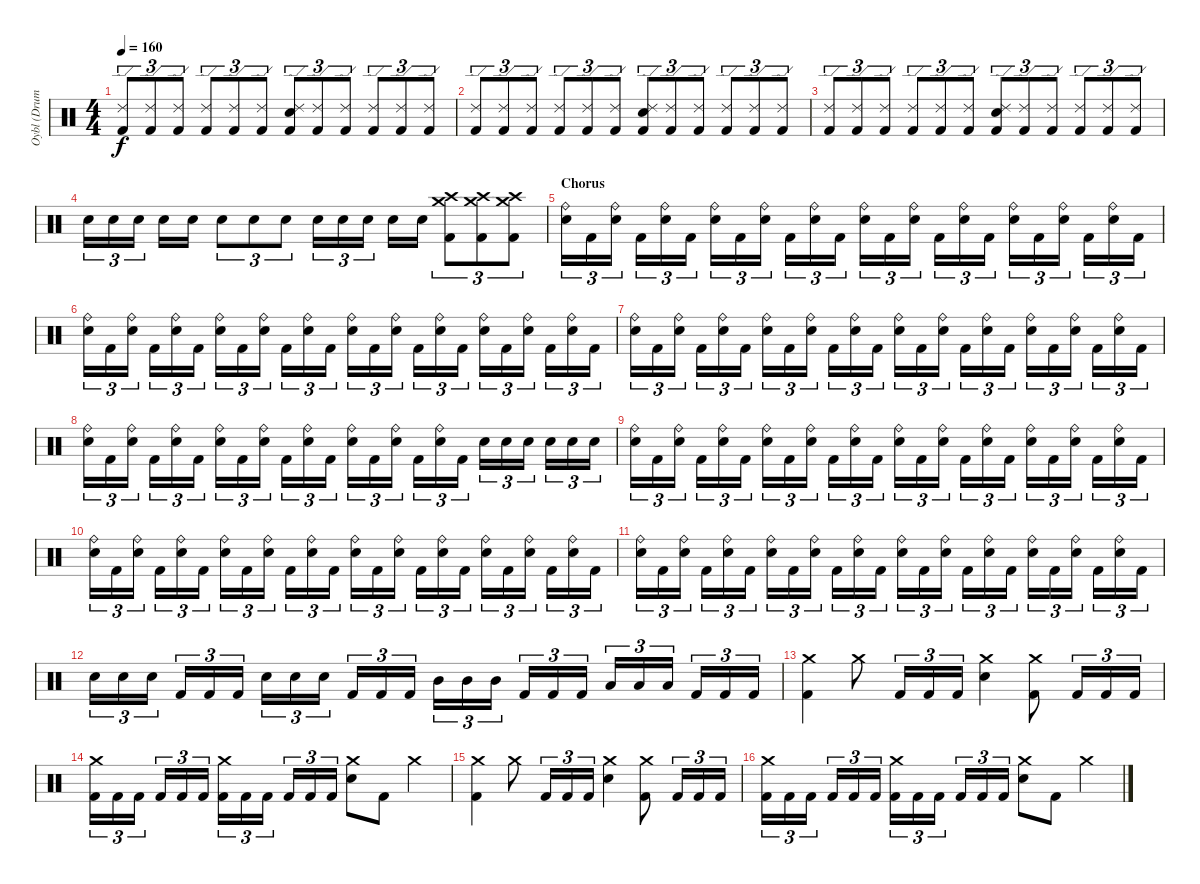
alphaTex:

\track ("Oybl (Drums)" "Oybl (Drum") {instrument percussion}
\staff {score}
\articulation defaults
\ts (4 4)
\tempo 160
\clef neutral
\ks c
("Ride (edge) 2" "Kick (hit) 2").8{tu (3 2) dy f} ("Ride (edge) 2" "Kick (hit) 2").8{tu (3 2)} ("Ride (edge) 2" "Kick (hit) 2").8{tu (3 2)} ("Ride (edge) 2" "Kick (hit) 2").8{tu (3 2)} ("Ride (edge) 2" "Kick (hit) 2").8{tu (3 2)} ("Ride (edge) 2" "Kick (hit) 2").8{tu (3 2)} ("Ride (edge) 2" "Snare (hit) 2" "Kick (hit) 2").8{tu (3 2)} ("Ride (edge) 2" "Kick (hit) 2").8{tu (3 2)} ("Ride (edge) 2" "Kick (hit) 2").8{tu (3 2)} ("Ride (edge) 2" "Kick (hit) 2").8{tu (3 2)} ("Ride (edge) 2" "Kick (hit) 2").8{tu (3 2)} ("Ride (edge) 2" "Kick (hit) 2").8{tu (3 2)} |
("Ride (edge) 2" "Kick (hit) 2").8{tu (3 2)} ("Ride (edge) 2" "Kick (hit) 2").8{tu (3 2)} ("Ride (edge) 2" "Kick (hit) 2").8{tu (3 2)} ("Ride (edge) 2" "Kick (hit) 2").8{tu (3 2)} ("Ride (edge) 2" "Kick (hit) 2").8{tu (3 2)} ("Ride (edge) 2" "Kick (hit) 2").8{tu (3 2)} ("Ride (edge) 2" "Snare (hit) 2" "Kick (hit) 2").8{tu (3 2)} ("Ride (edge) 2" "Kick (hit) 2").8{tu (3 2)} ("Ride (edge) 2" "Kick (hit) 2").8{tu (3 2)} ("Ride (edge) 2" "Kick (hit) 2").8{tu (3 2)} ("Ride (edge) 2" "Kick (hit) 2").8{tu (3 2)} ("Ride (edge) 2" "Kick (hit) 2").8{tu (3 2)} |
("Ride (edge) 2" "Kick (hit) 2").8{tu (3 2)} ("Ride (edge) 2" "Kick (hit) 2").8{tu (3 2)} ("Ride (edge) 2" "Kick (hit) 2").8{tu (3 2)} ("Ride (edge) 2" "Kick (hit) 2").8{tu (3 2)} ("Ride (edge) 2" "Kick (hit) 2").8{tu (3 2)} ("Ride (edge) 2" "Kick (hit) 2").8{tu (3 2)} ("Ride (edge) 2" "Snare (hit) 2" "Kick (hit) 2").8{tu (3 2)} ("Ride (edge) 2" "Kick (hit) 2").8{tu (3 2)} ("Ride (edge) 2" "Kick (hit) 2").8{tu (3 2)} ("Ride (edge) 2" "Kick (hit) 2").8{tu (3 2)} ("Ride (edge) 2" "Kick (hit) 2").8{tu (3 2)} ("Ride (edge) 2" "Kick (hit) 2").8{tu (3 2)} |
"Snare (hit) 2".16{tu (3 2)} "Snare (hit) 2".16{tu (3 2)} "Snare (hit) 2".16{tu (3 2)} "Snare (hit) 2".16 "Snare (hit) 2".16 "Snare (hit) 2".8{tu (3 2)} "Snare (hit) 2".8{tu (3 2)} "Snare (hit) 2".8{tu (3 2)} "Snare (hit) 2".16{tu (3 2)} "Snare (hit) 2".16{tu (3 2)} "Snare (hit) 2".16{tu (3 2)} "Snare (hit) 2".16 "Snare (hit) 2".16 ("Crash medium (hit)" "Crash high (hit)" "Kick (hit) 2").8{tu (3 2)} ("Crash medium (hit)" "Crash high (hit)" "Kick (hit) 2").8{tu (3 2)} ("Crash medium (hit)" "Crash high (hit)" "Kick (hit) 2").8{tu (3 2)} |
\section ("" "Chorus")
("Ride (bell)" "Snare (hit) 2").16{tu (3 2)} "Kick (hit) 2".16{tu (3 2)} ("Ride (bell)" "Snare (hit) 2").16{tu (3 2)} "Kick (hit) 2".16{tu (3 2)} ("Ride (bell)" "Snare (hit) 2").16{tu (3 2)} "Kick (hit) 2".16{tu (3 2)} ("Ride (bell)" "Snare (hit) 2").16{tu (3 2)} "Kick (hit) 2".16{tu (3 2)} ("Ride (bell)" "Snare (hit) 2").16{tu (3 2)} "Kick (hit) 2".16{tu (3 2)} ("Ride (bell)" "Snare (hit) 2").16{tu (3 2)} "Kick (hit) 2".16{tu (3 2)} ("Ride (bell)" "Snare (hit) 2").16{tu (3 2)} "Kick (hit) 2".16{tu (3 2)} ("Ride (bell)" "Snare (hit) 2").16{tu (3 2)} "Kick (hit) 2".16{tu (3 2)} ("Ride (bell)" "Snare (hit) 2").16{tu (3 2)} "Kick (hit) 2".16{tu (3 2)} ("Ride (bell)" "Snare (hit) 2").16{tu (3 2)} "Kick (hit) 2".16{tu (3 2)} ("Ride (bell)" "Snare (hit) 2").16{tu (3 2)} "Kick (hit) 2".16{tu (3 2)} ("Ride (bell)" "Snare (hit) 2").16{tu (3 2)} "Kick (hit) 2".16{tu (3 2)} |
("Ride (bell)" "Snare (hit) 2").16{tu (3 2)} "Kick (hit) 2".16{tu (3 2)} ("Ride (bell)" "Snare (hit) 2").16{tu (3 2)} "Kick (hit) 2".16{tu (3 2)} ("Ride (bell)" "Snare (hit) 2").16{tu (3 2)} "Kick (hit) 2".16{tu (3 2)} ("Ride (bell)" "Snare (hit) 2").16{tu (3 2)} "Kick (hit) 2".16{tu (3 2)} ("Ride (bell)" "Snare (hit) 2").16{tu (3 2)} "Kick (hit) 2".16{tu (3 2)} ("Ride (bell)" "Snare (hit) 2").16{tu (3 2)} "Kick (hit) 2".16{tu (3 2)} ("Ride (bell)" "Snare (hit) 2").16{tu (3 2)} "Kick (hit) 2".16{tu (3 2)} ("Ride (bell)" "Snare (hit) 2").16{tu (3 2)} "Kick (hit) 2".16{tu (3 2)} ("Ride (bell)" "Snare (hit) 2").16{tu (3 2)} "Kick (hit) 2".16{tu (3 2)} ("Ride (bell)" "Snare (hit) 2").16{tu (3 2)} "Kick (hit) 2".16{tu (3 2)} ("Ride (bell)" "Snare (hit) 2").16{tu (3 2)} "Kick (hit) 2".16{tu (3 2)} ("Ride (bell)" "Snare (hit) 2").16{tu (3 2)} "Kick (hit) 2".16{tu (3 2)} |
("Ride (bell)" "Snare (hit) 2").16{tu (3 2)} "Kick (hit) 2".16{tu (3 2)} ("Ride (bell)" "Snare (hit) 2").16{tu (3 2)} "Kick (hit) 2".16{tu (3 2)} ("Ride (bell)" "Snare (hit) 2").16{tu (3 2)} "Kick (hit) 2".16{tu (3 2)} ("Ride (bell)" "Snare (hit) 2").16{tu (3 2)} "Kick (hit) 2".16{tu (3 2)} ("Ride (bell)" "Snare (hit) 2").16{tu (3 2)} "Kick (hit) 2".16{tu (3 2)} ("Ride (bell)" "Snare (hit) 2").16{tu (3 2)} "Kick (hit) 2".16{tu (3 2)} ("Ride (bell)" "Snare (hit) 2").16{tu (3 2)} "Kick (hit) 2".16{tu (3 2)} ("Ride (bell)" "Snare (hit) 2").16{tu (3 2)} "Kick (hit) 2".16{tu (3 2)} ("Ride (bell)" "Snare (hit) 2").16{tu (3 2)} "Kick (hit) 2".16{tu (3 2)} ("Ride (bell)" "Snare (hit) 2").16{tu (3 2)} "Kick (hit) 2".16{tu (3 2)} ("Ride (bell)" "Snare (hit) 2").16{tu (3 2)} "Kick (hit) 2".16{tu (3 2)} ("Ride (bell)" "Snare (hit) 2").16{tu (3 2)} "Kick (hit) 2".16{tu (3 2)} |
("Ride (bell)" "Snare (hit) 2").16{tu (3 2)} "Kick (hit) 2".16{tu (3 2)} ("Ride (bell)" "Snare (hit) 2").16{tu (3 2)} "Kick (hit) 2".16{tu (3 2)} ("Ride (bell)" "Snare (hit) 2").16{tu (3 2)} "Kick (hit) 2".16{tu (3 2)} ("Ride (bell)" "Snare (hit) 2").16{tu (3 2)} "Kick (hit) 2".16{tu (3 2)} ("Ride (bell)" "Snare (hit) 2").16{tu (3 2)} "Kick (hit) 2".16{tu (3 2)} ("Ride (bell)" "Snare (hit) 2").16{tu (3 2)} "Kick (hit) 2".16{tu (3 2)} ("Ride (bell)" "Snare (hit) 2").16{tu (3 2)} "Kick (hit) 2".16{tu (3 2)} ("Ride (bell)" "Snare (hit) 2").16{tu (3 2)} "Kick (hit) 2".16{tu (3 2)} ("Ride (bell)" "Snare (hit) 2").16{tu (3 2)} "Kick (hit) 2".16{tu (3 2)} "Snare (hit) 2".16{tu (3 2)} "Snare (hit) 2".16{tu (3 2)} "Snare (hit) 2".16{tu (3 2)} "Snare (hit) 2".16{tu (3 2)} "Snare (hit) 2".16{tu (3 2)} "Snare (hit) 2".16{tu (3 2)} |
("Ride (bell)" "Snare (hit) 2").16{tu (3 2)} "Kick (hit) 2".16{tu (3 2)} ("Ride (bell)" "Snare (hit) 2").16{tu (3 2)} "Kick (hit) 2".16{tu (3 2)} ("Ride (bell)" "Snare (hit) 2").16{tu (3 2)} "Kick (hit) 2".16{tu (3 2)} ("Ride (bell)" "Snare (hit) 2").16{tu (3 2)} "Kick (hit) 2".16{tu (3 2)} ("Ride (bell)" "Snare (hit) 2").16{tu (3 2)} "Kick (hit) 2".16{tu (3 2)} ("Ride (bell)" "Snare (hit) 2").16{tu (3 2)} "Kick (hit) 2".16{tu (3 2)} ("Ride (bell)" "Snare (hit) 2").16{tu (3 2)} "Kick (hit) 2".16{tu (3 2)} ("Ride (bell)" "Snare (hit) 2").16{tu (3 2)} "Kick (hit) 2".16{tu (3 2)} ("Ride (bell)" "Snare (hit) 2").16{tu (3 2)} "Kick (hit) 2".16{tu (3 2)} ("Ride (bell)" "Snare (hit) 2").16{tu (3 2)} "Kick (hit) 2".16{tu (3 2)} ("Ride (bell)" "Snare (hit) 2").16{tu (3 2)} "Kick (hit) 2".16{tu (3 2)} ("Ride (bell)" "Snare (hit) 2").16{tu (3 2)} "Kick (hit) 2".16{tu (3 2)} |
("Ride (bell)" "Snare (hit) 2").16{tu (3 2)} "Kick (hit) 2".16{tu (3 2)} ("Ride (bell)" "Snare (hit) 2").16{tu (3 2)} "Kick (hit) 2".16{tu (3 2)} ("Ride (bell)" "Snare (hit) 2").16{tu (3 2)} "Kick (hit) 2".16{tu (3 2)} ("Ride (bell)" "Snare (hit) 2").16{tu (3 2)} "Kick (hit) 2".16{tu (3 2)} ("Ride (bell)" "Snare (hit) 2").16{tu (3 2)} "Kick (hit) 2".16{tu (3 2)} ("Ride (bell)" "Snare (hit) 2").16{tu (3 2)} "Kick (hit) 2".16{tu (3 2)} ("Ride (bell)" "Snare (hit) 2").16{tu (3 2)} "Kick (hit) 2".16{tu (3 2)} ("Ride (bell)" "Snare (hit) 2").16{tu (3 2)} "Kick (hit) 2".16{tu (3 2)} ("Ride (bell)" "Snare (hit) 2").16{tu (3 2)} "Kick (hit) 2".16{tu (3 2)} ("Ride (bell)" "Snare (hit) 2").16{tu (3 2)} "Kick (hit) 2".16{tu (3 2)} ("Ride (bell)" "Snare (hit) 2").16{tu (3 2)} "Kick (hit) 2".16{tu (3 2)} ("Ride (bell)" "Snare (hit) 2").16{tu (3 2)} "Kick (hit) 2".16{tu (3 2)} |
("Ride (bell)" "Snare (hit) 2").16{tu (3 2)} "Kick (hit) 2".16{tu (3 2)} ("Ride (bell)" "Snare (hit) 2").16{tu (3 2)} "Kick (hit) 2".16{tu (3 2)} ("Ride (bell)" "Snare (hit) 2").16{tu (3 2)} "Kick (hit) 2".16{tu (3 2)} ("Ride (bell)" "Snare (hit) 2").16{tu (3 2)} "Kick (hit) 2".16{tu (3 2)} ("Ride (bell)" "Snare (hit) 2").16{tu (3 2)} "Kick (hit) 2".16{tu (3 2)} ("Ride (bell)" "Snare (hit) 2").16{tu (3 2)} "Kick (hit) 2".16{tu (3 2)} ("Ride (bell)" "Snare (hit) 2").16{tu (3 2)} "Kick (hit) 2".16{tu (3 2)} ("Ride (bell)" "Snare (hit) 2").16{tu (3 2)} "Kick (hit) 2".16{tu (3 2)} ("Ride (bell)" "Snare (hit) 2").16{tu (3 2)} "Kick (hit) 2".16{tu (3 2)} ("Ride (bell)" "Snare (hit) 2").16{tu (3 2)} "Kick (hit) 2".16{tu (3 2)} ("Ride (bell)" "Snare (hit) 2").16{tu (3 2)} "Kick (hit) 2".16{tu (3 2)} ("Ride (bell)" "Snare (hit) 2").16{tu (3 2)} "Kick (hit) 2".16{tu (3 2)} |
"Snare (hit) 2".16{tu (3 2)} "Snare (hit) 2".16{tu (3 2)} "Snare (hit) 2".16{tu (3 2)} "Kick (hit) 2".16{tu (3 2)} "Kick (hit) 2".16{tu (3 2)} "Kick (hit) 2".16{tu (3 2)} "Snare (hit) 2".16{tu (3 2)} "Snare (hit) 2".16{tu (3 2)} "Snare (hit) 2".16{tu (3 2)} "Kick (hit) 2".16{tu (3 2)} "Kick (hit) 2".16{tu (3 2)} "Kick (hit) 2".16{tu (3 2)} "Mid Tom (hit)".16{tu (3 2)} "Mid Tom (hit)".16{tu (3 2)} "Mid Tom (hit)".16{tu (3 2)} "Kick (hit) 2".16{tu (3 2)} "Kick (hit) 2".16{tu (3 2)} "Kick (hit) 2".16{tu (3 2)} "Low Tom (hit)".16{tu (3 2)} "Low Tom (hit)".16{tu (3 2)} "Low Tom (hit)".16{tu (3 2)} "Kick (hit) 2".16{tu (3 2)} "Kick (hit) 2".16{tu (3 2)} "Kick (hit) 2".16{tu (3 2)} |
("Crash medium (hit)" "Kick (hit) 2").4 "Crash medium (hit)".8 "Kick (hit) 2".16{tu (3 2)} "Kick (hit) 2".16{tu (3 2)} "Kick (hit) 2".16{tu (3 2)} ("Crash medium (hit)" "Snare (hit) 2").4 ("Crash medium (hit)" "Kick (hit) 2").8 "Kick (hit) 2".16{tu (3 2)} "Kick (hit) 2".16{tu (3 2)} "Kick (hit) 2".16{tu (3 2)} |
("Crash medium (hit)" "Kick (hit) 2").16{tu (3 2)} "Kick (hit) 2".16{tu (3 2)} "Kick (hit) 2".16{tu (3 2)} "Kick (hit) 2".16{tu (3 2)} "Kick (hit) 2".16{tu (3 2)} "Kick (hit) 2".16{tu (3 2)} ("Crash medium (hit)" "Kick (hit) 2").16{tu (3 2)} "Kick (hit) 2".16{tu (3 2)} "Kick (hit) 2".16{tu (3 2)} "Kick (hit) 2".16{tu (3 2)} "Kick (hit) 2".16{tu (3 2)} "Kick (hit) 2".16{tu (3 2)} ("Crash medium (hit)" "Snare (hit) 2").8 "Kick (hit) 2".8 "Crash medium (hit)".4 |
("Crash medium (hit)" "Kick (hit) 2").4 "Crash medium (hit)".8 "Kick (hit) 2".16{tu (3 2)} "Kick (hit) 2".16{tu (3 2)} "Kick (hit) 2".16{tu (3 2)} ("Crash medium (hit)" "Snare (hit) 2").4 ("Crash medium (hit)" "Kick (hit) 2").8 "Kick (hit) 2".16{tu (3 2)} "Kick (hit) 2".16{tu (3 2)} "Kick (hit) 2".16{tu (3 2)} |
("Crash medium (hit)" "Kick (hit) 2").16{tu (3 2)} "Kick (hit) 2".16{tu (3 2)} "Kick (hit) 2".16{tu (3 2)} "Kick (hit) 2".16{tu (3 2)} "Kick (hit) 2".16{tu (3 2)} "Kick (hit) 2".16{tu (3 2)} ("Crash medium (hit)" "Kick (hit) 2").16{tu (3 2)} "Kick (hit) 2".16{tu (3 2)} "Kick (hit) 2".16{tu (3 2)} "Kick (hit) 2".16{tu (3 2)} "Kick (hit) 2".16{tu (3 2)} "Kick (hit) 2".16{tu (3 2)} ("Crash medium (hit)" "Snare (hit) 2").8 "Kick (hit) 2".8 "Crash medium (hit)".4
